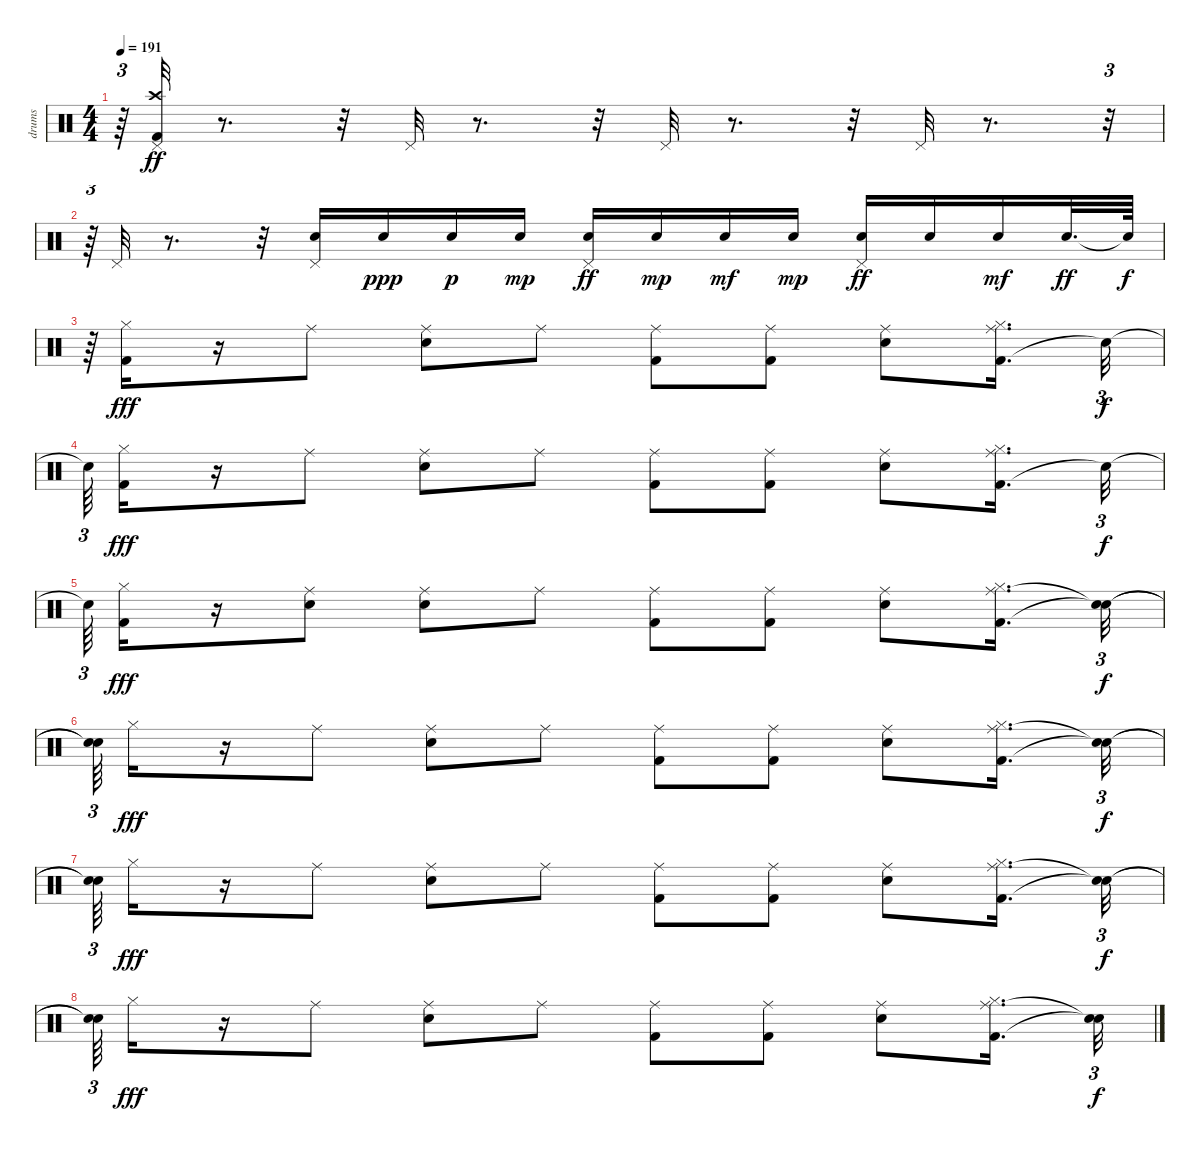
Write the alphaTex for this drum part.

\track ("drums               " "drums     ") {instrument percussion}
\staff {score}
\articulation defaults
\ts (4 4)
\tempo 191
\clef neutral
\ks c
r.64{tu (3 2) dy mf} ("Kick (hit) 2" "Crash high (hit)" "Pedal Hi-Hat (hit)").32{dy ff} r.8{d} r.32 "Pedal Hi-Hat (hit)".32 r.8{d} r.32 "Pedal Hi-Hat (hit)".32 r.8{d} r.32 "Pedal Hi-Hat (hit)".32 r.8{d} r.32{tu (3 2)} |
r.64{tu (3 2)} "Pedal Hi-Hat (hit)".32 r.8{d} r.32 ("Snare (hit) 2" "Pedal Hi-Hat (hit)").16 "Snare (hit) 2".16{dy ppp} "Snare (hit) 2".16{dy p} "Snare (hit) 2".16{dy mp} ("Snare (hit) 2" "Pedal Hi-Hat (hit)").16{dy ff} "Snare (hit) 2".16{dy mp} "Snare (hit) 2".16{dy mf} "Snare (hit) 2".16{dy mp} ("Snare (hit) 2" "Pedal Hi-Hat (hit)").16{dy ff} "Snare (hit) 2".16 "Snare (hit) 2".16{dy mf} "Snare (hit) 2".32{d dy ff} "Snare (hit)"{t}.64{dy f} |
r.64{tu (3 2)} ("Kick (hit) 2" "Hi-Hat (closed)").16{dy fff} r.16 "Ride (middle)".8 ("Snare (hit) 2" "Ride (middle)").8 "Ride (middle)".8 ("Kick (hit) 2" "Ride (middle)").8 ("Kick (hit) 2" "Ride (middle)").8 ("Snare (hit) 2" "Ride (middle)").8 ("Kick (hit) 2" "Ride (middle)" "Hi-Hat (closed)").16{d} "Snare (hit)"{t}.32{tu (3 2) dy f} |
"Snare (hit)"{t}.64{tu (3 2)} ("Kick (hit) 2" "Hi-Hat (closed)").16{dy fff} r.16 "Ride (middle)".8 ("Snare (hit) 2" "Ride (middle)").8 "Ride (middle)".8 ("Kick (hit) 2" "Ride (middle)").8 ("Kick (hit) 2" "Ride (middle)").8 ("Snare (hit) 2" "Ride (middle)").8 ("Kick (hit) 2" "Ride (middle)" "Hi-Hat (closed)").16{d} "Snare (hit)"{t}.32{tu (3 2) dy f} |
"Snare (hit)"{t}.64{tu (3 2)} ("Kick (hit) 2" "Hi-Hat (closed)").16{dy fff} r.16 ("Snare (hit) 2" "Ride (middle)").8 ("Snare (hit) 2" "Ride (middle)").8 "Ride (middle)".8 ("Kick (hit) 2" "Ride (middle)").8 ("Kick (hit) 2" "Ride (middle)").8 ("Snare (hit) 2" "Ride (middle)").8 ("Kick (hit) 2" "Ride (middle)" "Hi-Hat (closed)").16{d} ("Snare (hit)"{t} "Snare (hit)"{t}).32{tu (3 2) dy f} |
("Snare (hit)"{t} "Snare (hit)"{t}).64{tu (3 2)} "Hi-Hat (closed)".16{dy fff} r.16 "Ride (middle)".8 ("Snare (hit) 2" "Ride (middle)").8 "Ride (middle)".8 ("Kick (hit) 2" "Ride (middle)").8 ("Kick (hit) 2" "Ride (middle)").8 ("Snare (hit) 2" "Ride (middle)").8 ("Kick (hit) 2" "Ride (middle)" "Hi-Hat (closed)").16{d} ("Snare (hit)"{t} "Snare (hit)"{t}).32{tu (3 2) dy f} |
("Snare (hit)"{t} "Snare (hit)"{t}).64{tu (3 2)} "Hi-Hat (closed)".16{dy fff} r.16 "Ride (middle)".8 ("Snare (hit) 2" "Ride (middle)").8 "Ride (middle)".8 ("Kick (hit) 2" "Ride (middle)").8 ("Kick (hit) 2" "Ride (middle)").8 ("Snare (hit) 2" "Ride (middle)").8 ("Kick (hit) 2" "Ride (middle)" "Hi-Hat (closed)").16{d} ("Snare (hit)"{t} "Snare (hit)"{t}).32{tu (3 2) dy f} |
("Snare (hit)"{t} "Snare (hit)"{t}).64{tu (3 2)} "Hi-Hat (closed)".16{dy fff} r.16 "Ride (middle)".8 ("Snare (hit) 2" "Ride (middle)").8 "Ride (middle)".8 ("Kick (hit) 2" "Ride (middle)").8 ("Kick (hit) 2" "Ride (middle)").8 ("Snare (hit) 2" "Ride (middle)").8 ("Kick (hit) 2" "Ride (middle)" "Hi-Hat (closed)").16{d} ("Snare (hit)"{t} "Snare (hit)"{t}).32{tu (3 2) dy f}
